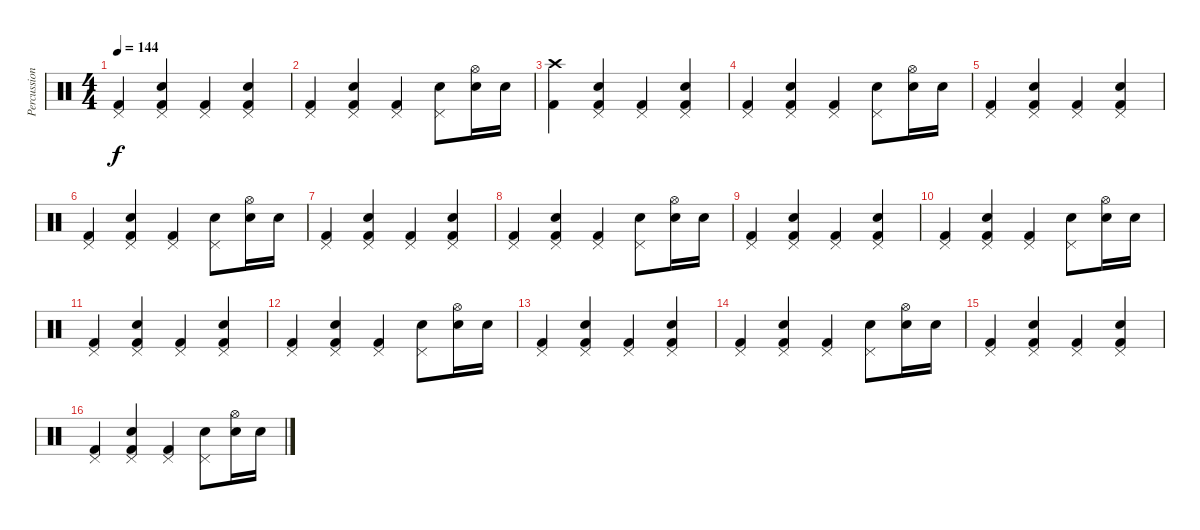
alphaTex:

\track ("Percussion" "Percussion") {instrument percussion}
\staff {score}
\articulation defaults
\ts (4 4)
\tempo 144
\clef neutral
\ks c
("Pedal Hi-Hat (hit)" "Kick (hit) 2").4{dy f} ("Pedal Hi-Hat (hit)" "Electric Snare (hit)" "Kick (hit) 2").4 ("Pedal Hi-Hat (hit)" "Kick (hit) 2").4 ("Pedal Hi-Hat (hit)" "Electric Snare (hit)" "Kick (hit) 2").4 |
("Pedal Hi-Hat (hit)" "Kick (hit) 2").4 ("Pedal Hi-Hat (hit)" "Electric Snare (hit)" "Kick (hit) 2").4 ("Pedal Hi-Hat (hit)" "Kick (hit) 2").4 ("Pedal Hi-Hat (hit)" "Electric Snare (hit)").8 ("Hi-Hat (open)" "Electric Snare (hit)").16 "Electric Snare (hit)".16 |
("Crash high (hit)" "Kick (hit) 2").4 ("Pedal Hi-Hat (hit)" "Electric Snare (hit)" "Kick (hit) 2").4 ("Pedal Hi-Hat (hit)" "Kick (hit) 2").4 ("Pedal Hi-Hat (hit)" "Electric Snare (hit)" "Kick (hit) 2").4 |
("Pedal Hi-Hat (hit)" "Kick (hit) 2").4 ("Pedal Hi-Hat (hit)" "Electric Snare (hit)" "Kick (hit) 2").4 ("Pedal Hi-Hat (hit)" "Kick (hit) 2").4 ("Pedal Hi-Hat (hit)" "Electric Snare (hit)").8 ("Hi-Hat (open)" "Electric Snare (hit)").16 "Electric Snare (hit)".16 |
("Pedal Hi-Hat (hit)" "Kick (hit) 2").4 ("Pedal Hi-Hat (hit)" "Electric Snare (hit)" "Kick (hit) 2").4 ("Pedal Hi-Hat (hit)" "Kick (hit) 2").4 ("Pedal Hi-Hat (hit)" "Electric Snare (hit)" "Kick (hit) 2").4 |
("Pedal Hi-Hat (hit)" "Kick (hit) 2").4 ("Pedal Hi-Hat (hit)" "Electric Snare (hit)" "Kick (hit) 2").4 ("Pedal Hi-Hat (hit)" "Kick (hit) 2").4 ("Pedal Hi-Hat (hit)" "Electric Snare (hit)").8 ("Hi-Hat (open)" "Electric Snare (hit)").16 "Electric Snare (hit)".16 |
("Pedal Hi-Hat (hit)" "Kick (hit) 2").4 ("Pedal Hi-Hat (hit)" "Electric Snare (hit)" "Kick (hit) 2").4 ("Pedal Hi-Hat (hit)" "Kick (hit) 2").4 ("Pedal Hi-Hat (hit)" "Electric Snare (hit)" "Kick (hit) 2").4 |
("Pedal Hi-Hat (hit)" "Kick (hit) 2").4 ("Pedal Hi-Hat (hit)" "Electric Snare (hit)" "Kick (hit) 2").4 ("Pedal Hi-Hat (hit)" "Kick (hit) 2").4 ("Pedal Hi-Hat (hit)" "Electric Snare (hit)").8 ("Hi-Hat (open)" "Electric Snare (hit)").16 "Electric Snare (hit)".16 |
("Pedal Hi-Hat (hit)" "Kick (hit) 2").4 ("Pedal Hi-Hat (hit)" "Electric Snare (hit)" "Kick (hit) 2").4 ("Pedal Hi-Hat (hit)" "Kick (hit) 2").4 ("Pedal Hi-Hat (hit)" "Electric Snare (hit)" "Kick (hit) 2").4 |
("Pedal Hi-Hat (hit)" "Kick (hit) 2").4 ("Pedal Hi-Hat (hit)" "Electric Snare (hit)" "Kick (hit) 2").4 ("Pedal Hi-Hat (hit)" "Kick (hit) 2").4 ("Pedal Hi-Hat (hit)" "Electric Snare (hit)").8 ("Hi-Hat (open)" "Electric Snare (hit)").16 "Electric Snare (hit)".16 |
("Pedal Hi-Hat (hit)" "Kick (hit) 2").4 ("Pedal Hi-Hat (hit)" "Electric Snare (hit)" "Kick (hit) 2").4 ("Pedal Hi-Hat (hit)" "Kick (hit) 2").4 ("Pedal Hi-Hat (hit)" "Electric Snare (hit)" "Kick (hit) 2").4 |
("Pedal Hi-Hat (hit)" "Kick (hit) 2").4 ("Pedal Hi-Hat (hit)" "Electric Snare (hit)" "Kick (hit) 2").4 ("Pedal Hi-Hat (hit)" "Kick (hit) 2").4 ("Pedal Hi-Hat (hit)" "Electric Snare (hit)").8 ("Hi-Hat (open)" "Electric Snare (hit)").16 "Electric Snare (hit)".16 |
("Pedal Hi-Hat (hit)" "Kick (hit) 2").4 ("Pedal Hi-Hat (hit)" "Electric Snare (hit)" "Kick (hit) 2").4 ("Pedal Hi-Hat (hit)" "Kick (hit) 2").4 ("Pedal Hi-Hat (hit)" "Electric Snare (hit)" "Kick (hit) 2").4 |
("Pedal Hi-Hat (hit)" "Kick (hit) 2").4 ("Pedal Hi-Hat (hit)" "Electric Snare (hit)" "Kick (hit) 2").4 ("Pedal Hi-Hat (hit)" "Kick (hit) 2").4 ("Pedal Hi-Hat (hit)" "Electric Snare (hit)").8 ("Hi-Hat (open)" "Electric Snare (hit)").16 "Electric Snare (hit)".16 |
("Pedal Hi-Hat (hit)" "Kick (hit) 2").4 ("Pedal Hi-Hat (hit)" "Electric Snare (hit)" "Kick (hit) 2").4 ("Pedal Hi-Hat (hit)" "Kick (hit) 2").4 ("Pedal Hi-Hat (hit)" "Electric Snare (hit)" "Kick (hit) 2").4 |
("Pedal Hi-Hat (hit)" "Kick (hit) 2").4 ("Pedal Hi-Hat (hit)" "Electric Snare (hit)" "Kick (hit) 2").4 ("Pedal Hi-Hat (hit)" "Kick (hit) 2").4 ("Pedal Hi-Hat (hit)" "Electric Snare (hit)").8 ("Hi-Hat (open)" "Electric Snare (hit)").16 "Electric Snare (hit)".16
